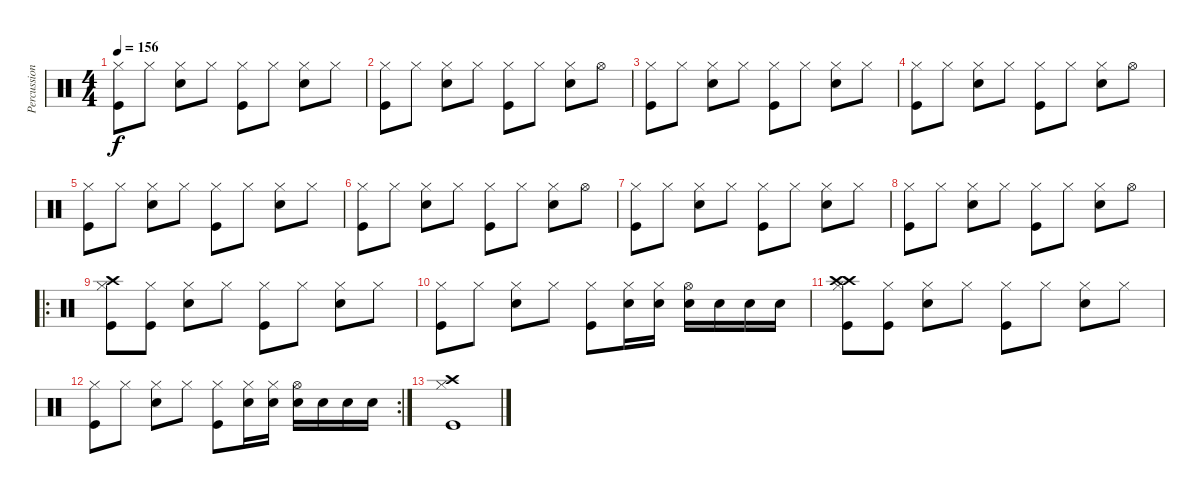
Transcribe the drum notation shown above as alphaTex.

\track ("Percussion" "Percussion") {instrument percussion}
\staff {score}
\articulation defaults
\ts (4 4)
\tempo 156
\clef neutral
\ks c
("Kick (hit)" "Hi-Hat (closed)").8{dy f} "Hi-Hat (closed)".8 ("Electric Snare (hit)" "Hi-Hat (closed)").8 "Hi-Hat (closed)".8 ("Kick (hit)" "Hi-Hat (closed)").8 "Hi-Hat (closed)".8 ("Electric Snare (hit)" "Hi-Hat (closed)").8 "Hi-Hat (closed)".8 |
("Kick (hit)" "Hi-Hat (closed)").8 "Hi-Hat (closed)".8 ("Electric Snare (hit)" "Hi-Hat (closed)").8 "Hi-Hat (closed)".8 ("Kick (hit)" "Hi-Hat (closed)").8 "Hi-Hat (closed)".8 ("Electric Snare (hit)" "Hi-Hat (closed)").8 "Hi-Hat (open)".8 |
("Kick (hit)" "Hi-Hat (closed)").8 "Hi-Hat (closed)".8 ("Electric Snare (hit)" "Hi-Hat (closed)").8 "Hi-Hat (closed)".8 ("Kick (hit)" "Hi-Hat (closed)").8 "Hi-Hat (closed)".8 ("Electric Snare (hit)" "Hi-Hat (closed)").8 "Hi-Hat (closed)".8 |
("Kick (hit)" "Hi-Hat (closed)").8 "Hi-Hat (closed)".8 ("Electric Snare (hit)" "Hi-Hat (closed)").8 "Hi-Hat (closed)".8 ("Kick (hit)" "Hi-Hat (closed)").8 "Hi-Hat (closed)".8 ("Electric Snare (hit)" "Hi-Hat (closed)").8 "Hi-Hat (open)".8 |
("Kick (hit)" "Hi-Hat (closed)").8 "Hi-Hat (closed)".8 ("Electric Snare (hit)" "Hi-Hat (closed)").8 "Hi-Hat (closed)".8 ("Kick (hit)" "Hi-Hat (closed)").8 "Hi-Hat (closed)".8 ("Electric Snare (hit)" "Hi-Hat (closed)").8 "Hi-Hat (closed)".8 |
("Kick (hit)" "Hi-Hat (closed)").8 "Hi-Hat (closed)".8 ("Electric Snare (hit)" "Hi-Hat (closed)").8 "Hi-Hat (closed)".8 ("Kick (hit)" "Hi-Hat (closed)").8 "Hi-Hat (closed)".8 ("Electric Snare (hit)" "Hi-Hat (closed)").8 "Hi-Hat (open)".8 |
("Kick (hit)" "Hi-Hat (closed)").8 "Hi-Hat (closed)".8 ("Electric Snare (hit)" "Hi-Hat (closed)").8 "Hi-Hat (closed)".8 ("Kick (hit)" "Hi-Hat (closed)").8 "Hi-Hat (closed)".8 ("Electric Snare (hit)" "Hi-Hat (closed)").8 "Hi-Hat (closed)".8 |
("Kick (hit)" "Hi-Hat (closed)").8 "Hi-Hat (closed)".8 ("Electric Snare (hit)" "Hi-Hat (closed)").8 "Hi-Hat (closed)".8 ("Kick (hit)" "Hi-Hat (closed)").8 "Hi-Hat (closed)".8 ("Electric Snare (hit)" "Hi-Hat (closed)").8 "Hi-Hat (open)".8 |
\ro
("Kick (hit)" "Hi-Hat (closed)" "Crash high (hit)").8 ("Kick (hit)" "Hi-Hat (closed)").8 ("Electric Snare (hit)" "Hi-Hat (closed)").8 "Hi-Hat (closed)".8 ("Kick (hit)" "Hi-Hat (closed)").8 "Hi-Hat (closed)".8 ("Electric Snare (hit)" "Hi-Hat (closed)").8 "Hi-Hat (closed)".8 |
("Kick (hit)" "Hi-Hat (closed)").8 "Hi-Hat (closed)".8 ("Electric Snare (hit)" "Hi-Hat (closed)").8 "Hi-Hat (closed)".8 ("Kick (hit)" "Hi-Hat (closed)").8 ("Electric Snare (hit)" "Hi-Hat (closed)").16 ("Electric Snare (hit)" "Hi-Hat (closed)").16 ("Electric Snare (hit)" "Hi-Hat (open)").16 "Electric Snare (hit)".16 "Electric Snare (hit)".16 "Electric Snare (hit)".16 |
("Kick (hit)" "Hi-Hat (closed)" "Crash high (hit)" "Crash high (hit)").8 ("Kick (hit)" "Hi-Hat (closed)").8 ("Electric Snare (hit)" "Hi-Hat (closed)").8 "Hi-Hat (closed)".8 ("Kick (hit)" "Hi-Hat (closed)").8 "Hi-Hat (closed)".8 ("Electric Snare (hit)" "Hi-Hat (closed)").8 "Hi-Hat (closed)".8 |
\rc 2
("Kick (hit)" "Hi-Hat (closed)").8 "Hi-Hat (closed)".8 ("Electric Snare (hit)" "Hi-Hat (closed)").8 "Hi-Hat (closed)".8 ("Kick (hit)" "Hi-Hat (closed)").8 ("Electric Snare (hit)" "Hi-Hat (closed)").16 ("Electric Snare (hit)" "Hi-Hat (closed)").16 ("Electric Snare (hit)" "Hi-Hat (open)").16 "Electric Snare (hit)".16 "Electric Snare (hit)".16 "Electric Snare (hit)".16 |
("Kick (hit)" "Hi-Hat (closed)" "Crash high (hit)").1
